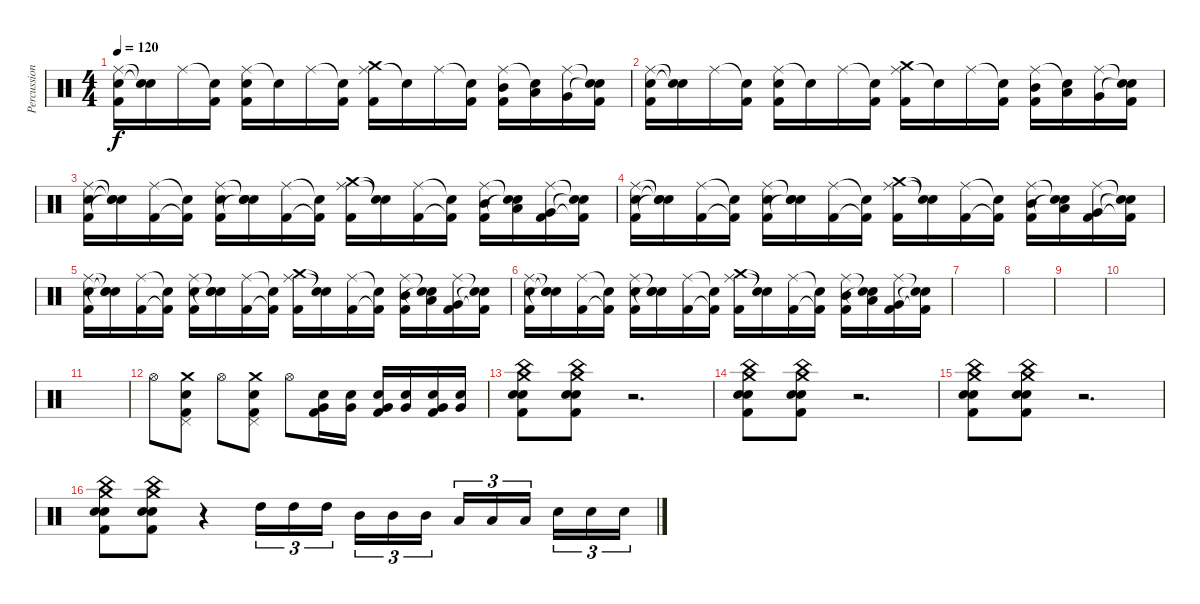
\track ("Percussion" "Percussion") {instrument percussion}
\staff {score}
\articulation defaults
\ts (4 4)
\tempo 120
\clef neutral
\ks c
("Ride (middle)" "Snare (hit) 2" "Kick (hit) 2").16{dy f} ("Snare (hit)"{t} "Snare (hit)"{t}).16 "Ride (middle)".16 ("Snare (hit)"{t} "Kick (hit) 2").16 ("Ride (middle)" "Snare (hit) 2" "Kick (hit) 2").16 "Snare (hit)"{t}.16 "Ride (middle)".16 ("Snare (hit)"{t} "Kick (hit) 2").16 ("Ride (middle)" "Crash medium (hit)" "Kick (hit) 2").16 "Snare (hit)"{t}.16 "Ride (middle)".16 ("Snare (hit)"{t} "Kick (hit) 2").16 ("Ride (middle)" "Mid Tom (hit)" "Kick (hit) 2").16 ("Snare (hit)"{t} "Low Tom (hit)").16 ("Ride (middle)" "Very Low Tom (hit)").16 ("Snare (hit)"{t} "Snare (hit)"{t} "Kick (hit) 2").16 |
("Ride (middle)" "Snare (hit) 2" "Kick (hit) 2").16 ("Snare (hit)"{t} "Snare (hit)"{t}).16 "Ride (middle)".16 ("Snare (hit)"{t} "Kick (hit) 2").16 ("Ride (middle)" "Snare (hit) 2" "Kick (hit) 2").16 "Snare (hit)"{t}.16 "Ride (middle)".16 ("Snare (hit)"{t} "Kick (hit) 2").16 ("Ride (middle)" "Crash medium (hit)" "Kick (hit) 2").16 "Snare (hit)"{t}.16 "Ride (middle)".16 ("Snare (hit)"{t} "Kick (hit) 2").16 ("Ride (middle)" "Mid Tom (hit)" "Kick (hit) 2").16 ("Snare (hit)"{t} "Low Tom (hit)").16 ("Ride (middle)" "Very Low Tom (hit)").16 ("Snare (hit)"{t} "Snare (hit)"{t} "Kick (hit) 2").16 |
("Ride (middle)" "Snare (hit) 2" "Kick (hit) 2").16 ("Snare (hit)"{t} "Snare (hit)"{t} "Snare (hit)"{t}).16 ("Ride (middle)" "Kick (hit) 2").16 ("Snare (hit)"{t} "Kick (hit) 2"{t}).16 ("Ride (middle)" "Snare (hit) 2" "Kick (hit) 2").16 ("Snare (hit)"{t} "Snare (hit) 2" "Snare (hit)"{t}).16 ("Ride (middle)" "Kick (hit) 2").16 ("Snare (hit)"{t} "Kick (hit) 2"{t}).16 ("Ride (middle)" "Crash medium (hit)" "Kick (hit) 2").16 ("Snare (hit)"{t} "Snare (hit)"{t}).16 ("Ride (middle)" "Kick (hit) 2").16 ("Snare (hit)"{t} "Kick (hit) 2"{t}).16 ("Ride (middle)" "Mid Tom (hit)" "Kick (hit) 2").16 ("Snare (hit)"{t} "Low Tom (hit)" "Snare (hit)"{t}).16 ("Ride (middle)" "Very Low Tom (hit)" "Kick (hit) 2").16 ("Snare (hit)"{t} "Snare (hit)"{t} "Kick (hit) 2"{t}).16 |
("Ride (middle)" "Snare (hit) 2" "Kick (hit) 2").16 ("Snare (hit)"{t} "Snare (hit)"{t} "Snare (hit)"{t}).16 ("Ride (middle)" "Kick (hit) 2").16 ("Snare (hit)"{t} "Kick (hit) 2"{t}).16 ("Ride (middle)" "Snare (hit) 2" "Kick (hit) 2").16 ("Snare (hit)"{t} "Snare (hit) 2" "Snare (hit)"{t}).16 ("Ride (middle)" "Kick (hit) 2").16 ("Snare (hit)"{t} "Kick (hit) 2"{t}).16 ("Ride (middle)" "Crash medium (hit)" "Kick (hit) 2").16 ("Snare (hit)"{t} "Snare (hit)"{t}).16 ("Ride (middle)" "Kick (hit) 2").16 ("Snare (hit)"{t} "Kick (hit) 2"{t}).16 ("Ride (middle)" "Mid Tom (hit)" "Kick (hit) 2").16 ("Snare (hit)"{t} "Low Tom (hit)" "Snare (hit)"{t}).16 ("Ride (middle)" "Very Low Tom (hit)" "Kick (hit) 2").16 ("Snare (hit)"{t} "Snare (hit)"{t} "Kick (hit) 2"{t}).16 |
("Ride (middle)" "Snare (hit) 2" "Kick (hit) 2").16 ("Snare (hit)"{t} "Snare (hit)"{t} "Snare (hit)"{t}).16 ("Ride (middle)" "Kick (hit) 2").16 ("Snare (hit)"{t} "Kick (hit) 2"{t}).16 ("Ride (middle)" "Snare (hit) 2" "Kick (hit) 2").16 ("Snare (hit)"{t} "Snare (hit) 2" "Snare (hit)"{t}).16 ("Ride (middle)" "Kick (hit) 2").16 ("Snare (hit)"{t} "Kick (hit) 2"{t}).16 ("Ride (middle)" "Crash medium (hit)" "Kick (hit) 2").16 ("Snare (hit)"{t} "Snare (hit)"{t}).16 ("Ride (middle)" "Kick (hit) 2").16 ("Snare (hit)"{t} "Kick (hit) 2"{t}).16 ("Ride (middle)" "Mid Tom (hit)" "Kick (hit) 2").16 ("Snare (hit)"{t} "Low Tom (hit)" "Snare (hit)"{t}).16 ("Ride (middle)" "Very Low Tom (hit)" "Kick (hit) 2").16 ("Snare (hit)"{t} "Snare (hit)"{t} "Kick (hit) 2"{t}).16 |
("Ride (middle)" "Snare (hit) 2" "Kick (hit) 2").16 ("Snare (hit)"{t} "Snare (hit)"{t} "Snare (hit)"{t}).16 ("Ride (middle)" "Kick (hit) 2").16 ("Snare (hit)"{t} "Kick (hit) 2"{t}).16 ("Ride (middle)" "Snare (hit) 2" "Kick (hit) 2").16 ("Snare (hit)"{t} "Snare (hit) 2" "Snare (hit)"{t}).16 ("Ride (middle)" "Kick (hit) 2").16 ("Snare (hit)"{t} "Kick (hit) 2"{t}).16 ("Ride (middle)" "Crash medium (hit)" "Kick (hit) 2").16 ("Snare (hit)"{t} "Snare (hit)"{t}).16 ("Ride (middle)" "Kick (hit) 2").16 ("Snare (hit)"{t} "Kick (hit) 2"{t}).16 ("Ride (middle)" "Mid Tom (hit)" "Kick (hit) 2").16 ("Snare (hit)"{t} "Low Tom (hit)" "Snare (hit)"{t}).16 ("Ride (middle)" "Very Low Tom (hit)" "Kick (hit) 2").16 ("Snare (hit)"{t} "Snare (hit)"{t} "Kick (hit) 2"{t}).16 |
|
|
|
|
|
"Hi-Hat (open)".8 ("Crash medium (hit)" "Pedal Hi-Hat (hit)" "Snare (hit) 2" "Kick (hit) 2").8 "Hi-Hat (open)".8 ("Crash medium (hit)" "Pedal Hi-Hat (hit)" "Snare (hit) 2" "Kick (hit) 2").8 "Hi-Hat (open)".8 ("Snare (hit) 2" "Very Low Tom (hit)" "Kick (hit) 2").16 ("Snare (hit) 2" "Very Low Tom (hit)").16 ("Snare (hit) 2" "Very Low Tom (hit)" "Kick (hit) 2").16 ("Snare (hit) 2" "Very Low Tom (hit)").16 ("Snare (hit) 2" "Very Low Tom (hit)" "Kick (hit) 2").16 ("Snare (hit) 2" "Very Low Tom (hit)").16 |
("China (hit)" "Crash medium (hit)" "Snare (hit) 2" "Kick (hit) 2" "Metronome (bell)").8 ("China (hit)" "Crash medium (hit)" "Snare (hit) 2" "Kick (hit) 2" "Metronome (bell)").8 r.2{d} |
("China (hit)" "Crash medium (hit)" "Snare (hit) 2" "Kick (hit) 2" "Metronome (bell)").8 ("China (hit)" "Crash medium (hit)" "Snare (hit) 2" "Kick (hit) 2" "Metronome (bell)").8 r.2{d} |
("China (hit)" "Crash medium (hit)" "Snare (hit) 2" "Kick (hit) 2" "Metronome (bell)").8 ("China (hit)" "Crash medium (hit)" "Snare (hit) 2" "Kick (hit) 2" "Metronome (bell)").8 r.2{d} |
("China (hit)" "Crash medium (hit)" "Snare (hit) 2" "Kick (hit) 2" "Metronome (bell)").8 ("China (hit)" "Crash medium (hit)" "Snare (hit) 2" "Kick (hit) 2" "Metronome (bell)").8 r.4{balance 16} "High Tom (hit)".16{tu (3 2)} "High Tom (hit)".16{tu (3 2)} "High Tom (hit)".16{tu (3 2)} "Mid Tom (hit)".16{tu (3 2)} "Mid Tom (hit)".16{tu (3 2)} "Mid Tom (hit)".16{tu (3 2)} "Low Tom (hit)".16{tu (3 2)} "Low Tom (hit)".16{tu (3 2)} "Low Tom (hit)".16{tu (3 2)} "Electric Snare (hit)".16{tu (3 2)} "Electric Snare (hit)".16{tu (3 2)} "Electric Snare (hit)".16{tu (3 2)}
